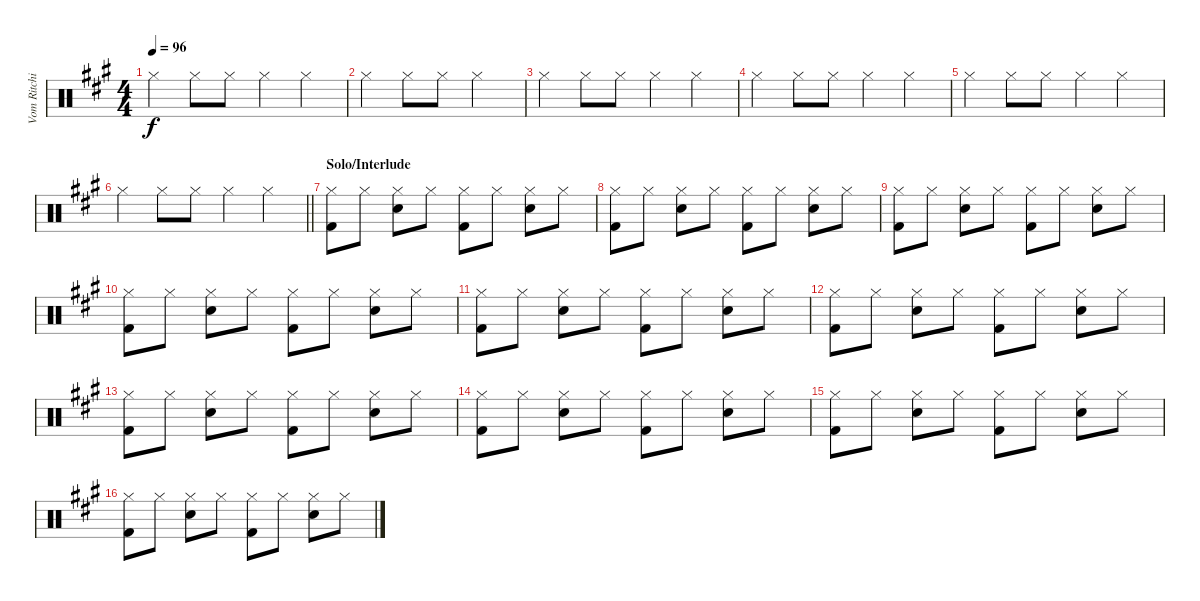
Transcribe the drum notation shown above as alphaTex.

\track ("Vom Ritchie" "Vom Ritchi") {instrument percussion}
\staff {score}
\articulation defaults
\ts (4 4)
\tempo 96
\clef neutral
\ks a "Hi-Hat (closed)".4{dy f} "Hi-Hat (closed)".8 "Hi-Hat (closed)".8 "Hi-Hat (closed)".4 "Hi-Hat (closed)".4
|
"Hi-Hat (closed)".4 "Hi-Hat (closed)".8 "Hi-Hat (closed)".8 "Hi-Hat (closed)".2 |
"Hi-Hat (closed)".4 "Hi-Hat (closed)".8 "Hi-Hat (closed)".8 "Hi-Hat (closed)".4 "Hi-Hat (closed)".4 |
"Hi-Hat (closed)".4 "Hi-Hat (closed)".8 "Hi-Hat (closed)".8 "Hi-Hat (closed)".4 "Hi-Hat (closed)".4 |
"Hi-Hat (closed)".4 "Hi-Hat (closed)".8 "Hi-Hat (closed)".8 "Hi-Hat (closed)".4 "Hi-Hat (closed)".4 |
\barLineRight lightlight "Hi-Hat (closed)".4 "Hi-Hat (closed)".8 "Hi-Hat (closed)".8 "Hi-Hat (closed)".4 "Hi-Hat (closed)".4
|
\section ("" "Solo/Interlude")
("Hi-Hat (closed)" "Kick (hit) 2").8 "Hi-Hat (closed)".8 ("Hi-Hat (closed)" "Snare (hit) 2").8 "Hi-Hat (closed)".8 ("Hi-Hat (closed)" "Kick (hit) 2").8 "Hi-Hat (closed)".8 ("Hi-Hat (closed)" "Snare (hit) 2").8 "Hi-Hat (closed)".8 |
("Hi-Hat (closed)" "Kick (hit) 2").8 "Hi-Hat (closed)".8 ("Hi-Hat (closed)" "Snare (hit) 2").8 "Hi-Hat (closed)".8 ("Hi-Hat (closed)" "Kick (hit) 2").8 "Hi-Hat (closed)".8 ("Hi-Hat (closed)" "Snare (hit) 2").8 "Hi-Hat (closed)".8 |
("Hi-Hat (closed)" "Kick (hit) 2").8 "Hi-Hat (closed)".8 ("Hi-Hat (closed)" "Snare (hit) 2").8 "Hi-Hat (closed)".8 ("Hi-Hat (closed)" "Kick (hit) 2").8 "Hi-Hat (closed)".8 ("Hi-Hat (closed)" "Snare (hit) 2").8 "Hi-Hat (closed)".8 |
("Hi-Hat (closed)" "Kick (hit) 2").8 "Hi-Hat (closed)".8 ("Hi-Hat (closed)" "Snare (hit) 2").8 "Hi-Hat (closed)".8 ("Hi-Hat (closed)" "Kick (hit) 2").8 "Hi-Hat (closed)".8 ("Hi-Hat (closed)" "Snare (hit) 2").8 "Hi-Hat (closed)".8 |
("Hi-Hat (closed)" "Kick (hit) 2").8 "Hi-Hat (closed)".8 ("Hi-Hat (closed)" "Snare (hit) 2").8 "Hi-Hat (closed)".8 ("Hi-Hat (closed)" "Kick (hit) 2").8 "Hi-Hat (closed)".8 ("Hi-Hat (closed)" "Snare (hit) 2").8 "Hi-Hat (closed)".8 |
("Hi-Hat (closed)" "Kick (hit) 2").8 "Hi-Hat (closed)".8 ("Hi-Hat (closed)" "Snare (hit) 2").8 "Hi-Hat (closed)".8 ("Hi-Hat (closed)" "Kick (hit) 2").8 "Hi-Hat (closed)".8 ("Hi-Hat (closed)" "Snare (hit) 2").8 "Hi-Hat (closed)".8 |
("Hi-Hat (closed)" "Kick (hit) 2").8 "Hi-Hat (closed)".8 ("Hi-Hat (closed)" "Snare (hit) 2").8 "Hi-Hat (closed)".8 ("Hi-Hat (closed)" "Kick (hit) 2").8 "Hi-Hat (closed)".8 ("Hi-Hat (closed)" "Snare (hit) 2").8 "Hi-Hat (closed)".8 |
("Hi-Hat (closed)" "Kick (hit) 2").8 "Hi-Hat (closed)".8 ("Hi-Hat (closed)" "Snare (hit) 2").8 "Hi-Hat (closed)".8 ("Hi-Hat (closed)" "Kick (hit) 2").8 "Hi-Hat (closed)".8 ("Hi-Hat (closed)" "Snare (hit) 2").8 "Hi-Hat (closed)".8 |
("Hi-Hat (closed)" "Kick (hit) 2").8 "Hi-Hat (closed)".8 ("Hi-Hat (closed)" "Snare (hit) 2").8 "Hi-Hat (closed)".8 ("Hi-Hat (closed)" "Kick (hit) 2").8 "Hi-Hat (closed)".8 ("Hi-Hat (closed)" "Snare (hit) 2").8 "Hi-Hat (closed)".8 |
("Hi-Hat (closed)" "Kick (hit) 2").8 "Hi-Hat (closed)".8 ("Hi-Hat (closed)" "Snare (hit) 2").8 "Hi-Hat (closed)".8 ("Hi-Hat (closed)" "Kick (hit) 2").8 "Hi-Hat (closed)".8 ("Hi-Hat (closed)" "Snare (hit) 2").8 "Hi-Hat (closed)".8
